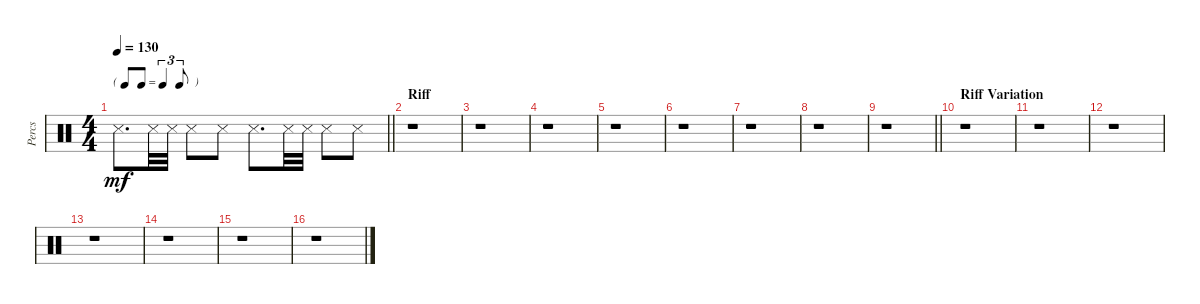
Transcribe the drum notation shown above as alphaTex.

\track ("Percs" "Percs") {instrument percussion}
\staff {score}
\articulation defaults
\ts (4 4)
\tf triplet8th
\tempo 130
\clef neutral
\barLineRight lightlight
\ks c "Snare (side stick) 3".8{d dy mf} "Snare (side stick) 3".32 "Snare (side stick) 3".32 "Snare (side stick) 3".8 "Snare (side stick) 3".8 "Snare (side stick) 3".8{d} "Snare (side stick) 3".32 "Snare (side stick) 3".32 "Snare (side stick) 3".8 "Snare (side stick) 3".8
|
\section ("" "Riff")
r.1 |
r.1 |
r.1 |
r.1 |
r.1 |
r.1 |
r.1 |
\barLineRight lightlight
r.1 |
\section ("" "Riff Variation")
r.1 |
r.1 |
r.1 |
r.1 |
r.1 |
r.1 |
r.1
